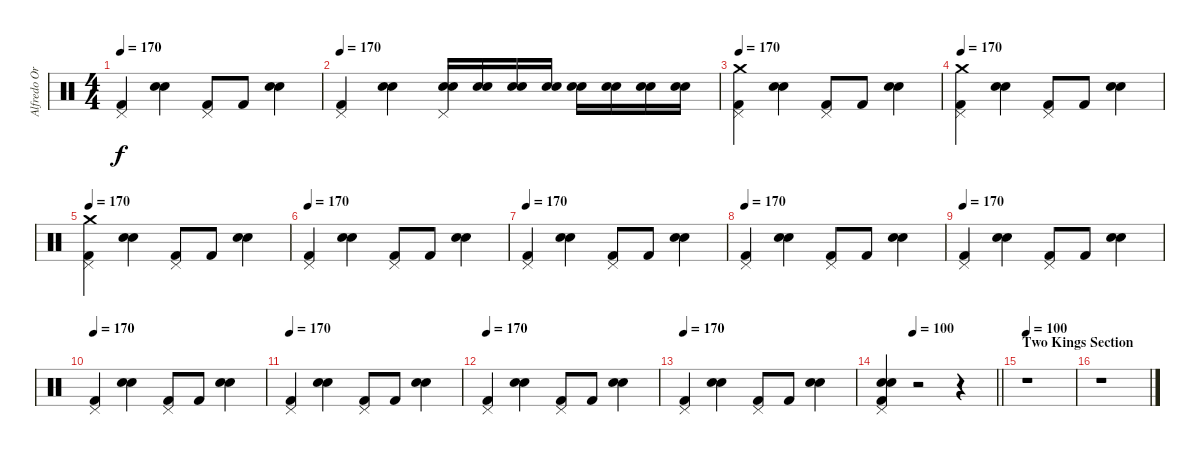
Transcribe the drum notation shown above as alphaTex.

\track ("Alfredo Ortiz (Drums)" "Alfredo Or") {instrument percussion}
\staff {score}
\articulation defaults
\ts (4 4)
\tempo 170
\clef neutral
\ks c
("Kick (hit) 2" "Pedal Hi-Hat (hit)").4{dy f} ("Snare (hit) 2" "Electric Snare (hit)").4 ("Kick (hit) 2" "Pedal Hi-Hat (hit)").8 "Kick (hit) 2".8 ("Snare (hit) 2" "Electric Snare (hit)").4 |
\tempo 170
("Kick (hit) 2" "Pedal Hi-Hat (hit)").4 ("Snare (hit) 2" "Electric Snare (hit)").4 ("Snare (hit) 2" "Electric Snare (hit)" "Pedal Hi-Hat (hit)").16 ("Snare (hit) 2" "Electric Snare (hit)").16 ("Snare (hit) 2" "Electric Snare (hit)").16 ("Snare (hit) 2" "Electric Snare (hit)").16 ("Snare (hit) 2" "Electric Snare (hit)").16 ("Snare (hit) 2" "Electric Snare (hit)").16 ("Snare (hit) 2" "Electric Snare (hit)").16 ("Snare (hit) 2" "Electric Snare (hit)").16 |
\tempo 170
("Kick (hit) 2" "Pedal Hi-Hat (hit)" "Crash medium (hit)").4 ("Snare (hit) 2" "Electric Snare (hit)").4 ("Kick (hit) 2" "Pedal Hi-Hat (hit)").8 "Kick (hit) 2".8 ("Snare (hit) 2" "Electric Snare (hit)").4 |
\tempo 170
("Kick (hit) 2" "Pedal Hi-Hat (hit)" "Crash medium (hit)").4 ("Snare (hit) 2" "Electric Snare (hit)").4 ("Kick (hit) 2" "Pedal Hi-Hat (hit)").8 "Kick (hit) 2".8 ("Snare (hit) 2" "Electric Snare (hit)").4 |
\tempo 170
("Kick (hit) 2" "Pedal Hi-Hat (hit)" "Crash medium (hit)").4 ("Snare (hit) 2" "Electric Snare (hit)").4 ("Kick (hit) 2" "Pedal Hi-Hat (hit)").8 "Kick (hit) 2".8 ("Snare (hit) 2" "Electric Snare (hit)").4 |
\tempo 170
("Kick (hit) 2" "Pedal Hi-Hat (hit)").4 ("Snare (hit) 2" "Electric Snare (hit)").4 ("Kick (hit) 2" "Pedal Hi-Hat (hit)").8 "Kick (hit) 2".8 ("Snare (hit) 2" "Electric Snare (hit)").4 |
\tempo 170
("Kick (hit) 2" "Pedal Hi-Hat (hit)").4 ("Snare (hit) 2" "Electric Snare (hit)").4 ("Kick (hit) 2" "Pedal Hi-Hat (hit)").8 "Kick (hit) 2".8 ("Snare (hit) 2" "Electric Snare (hit)").4 |
\tempo 170
("Kick (hit) 2" "Pedal Hi-Hat (hit)").4 ("Snare (hit) 2" "Electric Snare (hit)").4 ("Kick (hit) 2" "Pedal Hi-Hat (hit)").8 "Kick (hit) 2".8 ("Snare (hit) 2" "Electric Snare (hit)").4 |
\tempo 170
("Kick (hit) 2" "Pedal Hi-Hat (hit)").4 ("Snare (hit) 2" "Electric Snare (hit)").4 ("Kick (hit) 2" "Pedal Hi-Hat (hit)").8 "Kick (hit) 2".8 ("Snare (hit) 2" "Electric Snare (hit)").4 |
\tempo 170
("Kick (hit) 2" "Pedal Hi-Hat (hit)").4 ("Snare (hit) 2" "Electric Snare (hit)").4 ("Kick (hit) 2" "Pedal Hi-Hat (hit)").8 "Kick (hit) 2".8 ("Snare (hit) 2" "Electric Snare (hit)").4 |
\tempo 170
("Kick (hit) 2" "Pedal Hi-Hat (hit)").4 ("Snare (hit) 2" "Electric Snare (hit)").4 ("Kick (hit) 2" "Pedal Hi-Hat (hit)").8 "Kick (hit) 2".8 ("Snare (hit) 2" "Electric Snare (hit)").4 |
\tempo 170
("Kick (hit) 2" "Pedal Hi-Hat (hit)").4 ("Snare (hit) 2" "Electric Snare (hit)").4 ("Kick (hit) 2" "Pedal Hi-Hat (hit)").8 "Kick (hit) 2".8 ("Snare (hit) 2" "Electric Snare (hit)").4 |
\tempo 170
("Kick (hit) 2" "Pedal Hi-Hat (hit)").4 ("Snare (hit) 2" "Electric Snare (hit)").4 ("Kick (hit) 2" "Pedal Hi-Hat (hit)").8 "Kick (hit) 2".8 ("Snare (hit) 2" "Electric Snare (hit)").4 |
\tempo (100 0.25)
\barLineRight lightlight
("Kick (hit) 2" "Snare (hit) 2" "Pedal Hi-Hat (hit)" "Electric Snare (hit)").4 r.2 r.4 |
\section ("" "Two Kings Section")
\tempo 100
r.1 |
r.1
